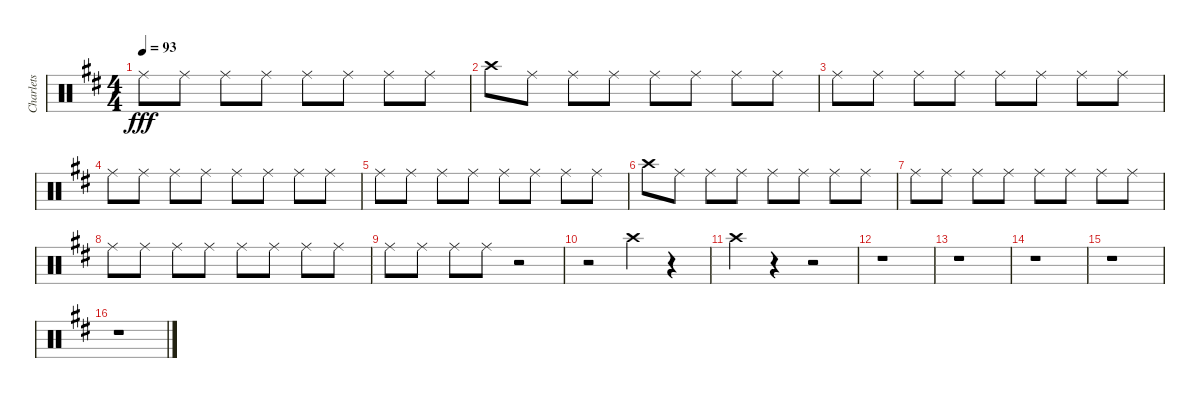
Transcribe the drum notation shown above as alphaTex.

\track ("Charlets" "Charlets") {instrument percussion}
\staff {score}
\articulation defaults
\ts (4 4)
\tempo 93
\clef neutral
\ks d "Ride (middle)".8{dy fff} "Ride (middle)".8 "Ride (middle)".8 "Ride (middle)".8 "Ride (middle)".8 "Ride (middle)".8 "Ride (middle)".8 "Ride (middle)".8
|
"Crash high (hit)".8 "Ride (middle)".8 "Ride (middle)".8 "Ride (middle)".8 "Ride (middle)".8 "Ride (middle)".8 "Ride (middle)".8 "Ride (middle)".8 |
"Ride (middle)".8 "Ride (middle)".8 "Ride (middle)".8 "Ride (middle)".8 "Ride (middle)".8 "Ride (middle)".8 "Ride (middle)".8 "Ride (middle)".8 |
"Ride (middle)".8 "Ride (middle)".8 "Ride (middle)".8 "Ride (middle)".8 "Ride (middle)".8 "Ride (middle)".8 "Ride (middle)".8 "Ride (middle)".8 |
"Ride (middle)".8 "Ride (middle)".8 "Ride (middle)".8 "Ride (middle)".8 "Ride (middle)".8 "Ride (middle)".8 "Ride (middle)".8 "Ride (middle)".8 |
"Crash high (hit)".8 "Ride (middle)".8 "Ride (middle)".8 "Ride (middle)".8 "Ride (middle)".8 "Ride (middle)".8 "Ride (middle)".8 "Ride (middle)".8 |
"Ride (middle)".8 "Ride (middle)".8 "Ride (middle)".8 "Ride (middle)".8 "Ride (middle)".8 "Ride (middle)".8 "Ride (middle)".8 "Ride (middle)".8 |
"Ride (middle)".8 "Ride (middle)".8 "Ride (middle)".8 "Ride (middle)".8 "Ride (middle)".8 "Ride (middle)".8 "Ride (middle)".8 "Ride (middle)".8 |
"Ride (middle)".8 "Ride (middle)".8 "Ride (middle)".8 "Ride (middle)".8 r.2 |
r.2 "Crash high (hit)".4 r.4 |
"Crash high (hit)".4 r.4 r.2 |
r.1 |
r.1 |
r.1 |
r.1 |
r.1
